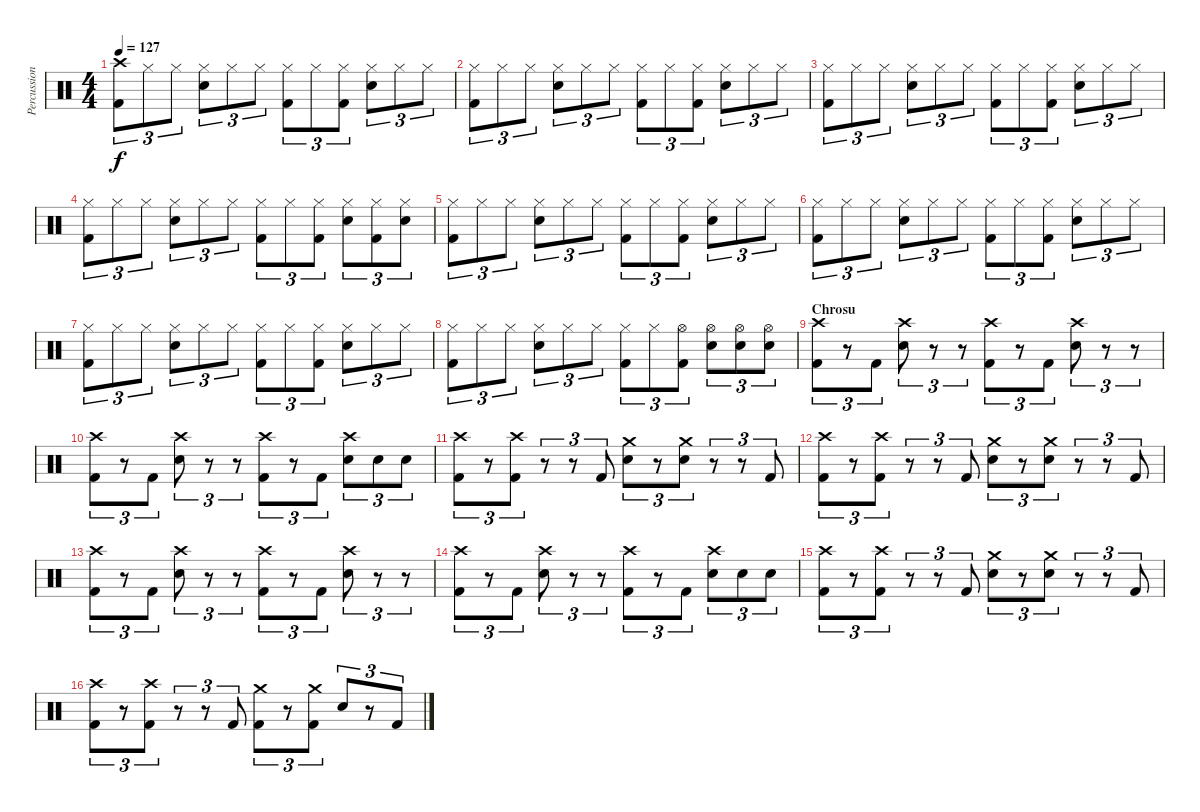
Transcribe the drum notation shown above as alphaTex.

\track ("Percussion" "Percussion") {instrument percussion}
\staff {score}
\articulation defaults
\ts (4 4)
\tempo 127
\clef neutral
\ks c
("Crash high (hit)" "Kick (hit) 2").8{tu (3 2) dy f} "Hi-Hat (closed)".8{tu (3 2)} "Hi-Hat (closed)".8{tu (3 2)} ("Hi-Hat (closed)" "Electric Snare (hit)").8{tu (3 2)} "Hi-Hat (closed)".8{tu (3 2)} "Hi-Hat (closed)".8{tu (3 2)} ("Hi-Hat (closed)" "Kick (hit) 2").8{tu (3 2)} "Hi-Hat (closed)".8{tu (3 2)} ("Hi-Hat (closed)" "Kick (hit) 2").8{tu (3 2)} ("Hi-Hat (closed)" "Electric Snare (hit)").8{tu (3 2)} "Hi-Hat (closed)".8{tu (3 2)} "Hi-Hat (closed)".8{tu (3 2)} |
("Hi-Hat (closed)" "Kick (hit) 2").8{tu (3 2)} "Hi-Hat (closed)".8{tu (3 2)} "Hi-Hat (closed)".8{tu (3 2)} ("Hi-Hat (closed)" "Electric Snare (hit)").8{tu (3 2)} "Hi-Hat (closed)".8{tu (3 2)} "Hi-Hat (closed)".8{tu (3 2)} ("Hi-Hat (closed)" "Kick (hit) 2").8{tu (3 2)} "Hi-Hat (closed)".8{tu (3 2)} ("Hi-Hat (closed)" "Kick (hit) 2").8{tu (3 2)} ("Hi-Hat (closed)" "Electric Snare (hit)").8{tu (3 2)} "Hi-Hat (closed)".8{tu (3 2)} "Hi-Hat (closed)".8{tu (3 2)} |
("Hi-Hat (closed)" "Kick (hit) 2").8{tu (3 2)} "Hi-Hat (closed)".8{tu (3 2)} "Hi-Hat (closed)".8{tu (3 2)} ("Hi-Hat (closed)" "Electric Snare (hit)").8{tu (3 2)} "Hi-Hat (closed)".8{tu (3 2)} "Hi-Hat (closed)".8{tu (3 2)} ("Hi-Hat (closed)" "Kick (hit) 2").8{tu (3 2)} "Hi-Hat (closed)".8{tu (3 2)} ("Hi-Hat (closed)" "Kick (hit) 2").8{tu (3 2)} ("Hi-Hat (closed)" "Electric Snare (hit)").8{tu (3 2)} "Hi-Hat (closed)".8{tu (3 2)} "Hi-Hat (closed)".8{tu (3 2)} |
("Hi-Hat (closed)" "Kick (hit) 2").8{tu (3 2)} "Hi-Hat (closed)".8{tu (3 2)} "Hi-Hat (closed)".8{tu (3 2)} ("Hi-Hat (closed)" "Electric Snare (hit)").8{tu (3 2)} "Hi-Hat (closed)".8{tu (3 2)} "Hi-Hat (closed)".8{tu (3 2)} ("Hi-Hat (closed)" "Kick (hit) 2").8{tu (3 2)} "Hi-Hat (closed)".8{tu (3 2)} ("Hi-Hat (closed)" "Kick (hit) 2").8{tu (3 2)} ("Hi-Hat (closed)" "Electric Snare (hit)").8{tu (3 2)} ("Hi-Hat (closed)" "Kick (hit) 2").8{tu (3 2)} ("Hi-Hat (closed)" "Electric Snare (hit)").8{tu (3 2)} |
("Hi-Hat (closed)" "Kick (hit) 2").8{tu (3 2)} "Hi-Hat (closed)".8{tu (3 2)} "Hi-Hat (closed)".8{tu (3 2)} ("Hi-Hat (closed)" "Electric Snare (hit)").8{tu (3 2)} "Hi-Hat (closed)".8{tu (3 2)} "Hi-Hat (closed)".8{tu (3 2)} ("Hi-Hat (closed)" "Kick (hit) 2").8{tu (3 2)} "Hi-Hat (closed)".8{tu (3 2)} ("Hi-Hat (closed)" "Kick (hit) 2").8{tu (3 2)} ("Hi-Hat (closed)" "Electric Snare (hit)").8{tu (3 2)} "Hi-Hat (closed)".8{tu (3 2)} "Hi-Hat (closed)".8{tu (3 2)} |
("Hi-Hat (closed)" "Kick (hit) 2").8{tu (3 2)} "Hi-Hat (closed)".8{tu (3 2)} "Hi-Hat (closed)".8{tu (3 2)} ("Hi-Hat (closed)" "Electric Snare (hit)").8{tu (3 2)} "Hi-Hat (closed)".8{tu (3 2)} "Hi-Hat (closed)".8{tu (3 2)} ("Hi-Hat (closed)" "Kick (hit) 2").8{tu (3 2)} "Hi-Hat (closed)".8{tu (3 2)} ("Hi-Hat (closed)" "Kick (hit) 2").8{tu (3 2)} ("Hi-Hat (closed)" "Electric Snare (hit)").8{tu (3 2)} "Hi-Hat (closed)".8{tu (3 2)} "Hi-Hat (closed)".8{tu (3 2)} |
("Hi-Hat (closed)" "Kick (hit) 2").8{tu (3 2)} "Hi-Hat (closed)".8{tu (3 2)} "Hi-Hat (closed)".8{tu (3 2)} ("Hi-Hat (closed)" "Electric Snare (hit)").8{tu (3 2)} "Hi-Hat (closed)".8{tu (3 2)} "Hi-Hat (closed)".8{tu (3 2)} ("Hi-Hat (closed)" "Kick (hit) 2").8{tu (3 2)} "Hi-Hat (closed)".8{tu (3 2)} ("Hi-Hat (closed)" "Kick (hit) 2").8{tu (3 2)} ("Hi-Hat (closed)" "Electric Snare (hit)").8{tu (3 2)} "Hi-Hat (closed)".8{tu (3 2)} "Hi-Hat (closed)".8{tu (3 2)} |
("Hi-Hat (closed)" "Kick (hit) 2").8{tu (3 2)} "Hi-Hat (closed)".8{tu (3 2)} "Hi-Hat (closed)".8{tu (3 2)} ("Hi-Hat (closed)" "Electric Snare (hit)").8{tu (3 2)} "Hi-Hat (closed)".8{tu (3 2)} "Hi-Hat (closed)".8{tu (3 2)} ("Hi-Hat (closed)" "Kick (hit) 2").8{tu (3 2)} "Hi-Hat (closed)".8{tu (3 2)} ("Hi-Hat (open)" "Kick (hit) 2").8{tu (3 2) volume 10} ("Hi-Hat (open)" "Electric Snare (hit)").8{tu (3 2)} ("Hi-Hat (open)" "Electric Snare (hit)").8{tu (3 2)} ("Hi-Hat (open)" "Electric Snare (hit)").8{tu (3 2)} |
\section ("" "Chrosu")
("Crash high (hit)" "Kick (hit) 2").8{tu (3 2) volume 13} r.8{tu (3 2)} "Kick (hit) 2".8{tu (3 2)} ("Crash high (hit)" "Electric Snare (hit)").8{tu (3 2)} r.8{tu (3 2)} r.8{tu (3 2)} ("Crash high (hit)" "Kick (hit) 2").8{tu (3 2)} r.8{tu (3 2)} "Kick (hit) 2".8{tu (3 2)} ("Crash high (hit)" "Electric Snare (hit)").8{tu (3 2)} r.8{tu (3 2)} r.8{tu (3 2)} |
("Crash high (hit)" "Kick (hit) 2").8{tu (3 2)} r.8{tu (3 2)} "Kick (hit) 2".8{tu (3 2)} ("Crash high (hit)" "Electric Snare (hit)").8{tu (3 2)} r.8{tu (3 2)} r.8{tu (3 2)} ("Crash high (hit)" "Kick (hit) 2").8{tu (3 2)} r.8{tu (3 2)} "Kick (hit) 2".8{tu (3 2)} ("Crash high (hit)" "Electric Snare (hit)").8{tu (3 2)} "Electric Snare (hit)".8{tu (3 2)} "Electric Snare (hit)".8{tu (3 2)} |
("Crash high (hit)" "Kick (hit) 2").8{tu (3 2)} r.8{tu (3 2)} ("Crash high (hit)" "Kick (hit) 2").8{tu (3 2)} r.8{tu (3 2)} r.8{tu (3 2)} "Kick (hit) 2".8{tu (3 2)} ("Crash medium (hit)" "Electric Snare (hit)").8{tu (3 2)} r.8{tu (3 2)} ("Crash medium (hit)" "Electric Snare (hit)").8{tu (3 2)} r.8{tu (3 2)} r.8{tu (3 2)} "Kick (hit) 2".8{tu (3 2)} |
("Crash high (hit)" "Kick (hit) 2").8{tu (3 2)} r.8{tu (3 2)} ("Crash high (hit)" "Kick (hit) 2").8{tu (3 2)} r.8{tu (3 2)} r.8{tu (3 2)} "Kick (hit) 2".8{tu (3 2)} ("Crash medium (hit)" "Electric Snare (hit)").8{tu (3 2)} r.8{tu (3 2)} ("Crash medium (hit)" "Electric Snare (hit)").8{tu (3 2)} r.8{tu (3 2)} r.8{tu (3 2)} "Kick (hit) 2".8{tu (3 2)} |
("Crash high (hit)" "Kick (hit) 2").8{tu (3 2)} r.8{tu (3 2)} "Kick (hit) 2".8{tu (3 2)} ("Crash high (hit)" "Electric Snare (hit)").8{tu (3 2)} r.8{tu (3 2)} r.8{tu (3 2)} ("Crash high (hit)" "Kick (hit) 2").8{tu (3 2)} r.8{tu (3 2)} "Kick (hit) 2".8{tu (3 2)} ("Crash high (hit)" "Electric Snare (hit)").8{tu (3 2)} r.8{tu (3 2)} r.8{tu (3 2)} |
("Crash high (hit)" "Kick (hit) 2").8{tu (3 2)} r.8{tu (3 2)} "Kick (hit) 2".8{tu (3 2)} ("Crash high (hit)" "Electric Snare (hit)").8{tu (3 2)} r.8{tu (3 2)} r.8{tu (3 2)} ("Crash high (hit)" "Kick (hit) 2").8{tu (3 2)} r.8{tu (3 2)} "Kick (hit) 2".8{tu (3 2)} ("Crash high (hit)" "Electric Snare (hit)").8{tu (3 2)} "Electric Snare (hit)".8{tu (3 2)} "Electric Snare (hit)".8{tu (3 2)} |
("Crash high (hit)" "Kick (hit) 2").8{tu (3 2)} r.8{tu (3 2)} ("Crash high (hit)" "Kick (hit) 2").8{tu (3 2)} r.8{tu (3 2)} r.8{tu (3 2)} "Kick (hit) 2".8{tu (3 2)} ("Crash medium (hit)" "Electric Snare (hit)").8{tu (3 2)} r.8{tu (3 2)} ("Crash medium (hit)" "Electric Snare (hit)").8{tu (3 2)} r.8{tu (3 2)} r.8{tu (3 2)} "Kick (hit) 2".8{tu (3 2)} |
("Crash high (hit)" "Kick (hit) 2").8{tu (3 2)} r.8{tu (3 2)} ("Crash high (hit)" "Kick (hit) 2").8{tu (3 2)} r.8{tu (3 2)} r.8{tu (3 2)} "Kick (hit) 2".8{tu (3 2)} ("Crash medium (hit)" "Kick (hit) 2").8{tu (3 2)} r.8{tu (3 2)} ("Crash medium (hit)" "Kick (hit) 2").8{tu (3 2)} "Electric Snare (hit)".8{tu (3 2)} r.8{tu (3 2)} "Kick (hit) 2".8{tu (3 2)}
